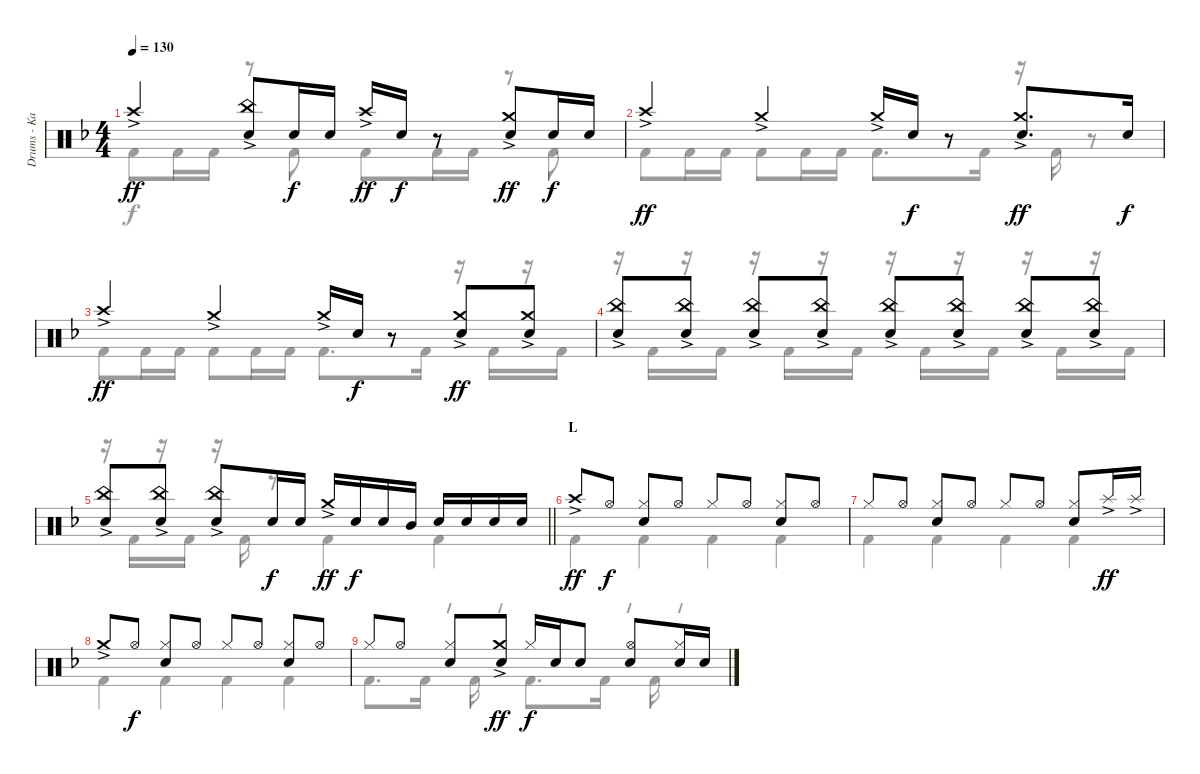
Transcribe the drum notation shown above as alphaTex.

\track ("Drums - Kai" "Drums - Ka") {instrument percussion}
\staff {score}
\articulation defaults
\voice
\ts (4 4)
\tempo 130
\clef neutral
\ks f "Crash high (hit)"{ac}.4{dy ff}
("China (hit)"{ac} "Snare (hit) 2").8 "Snare (hit) 2".16{dy f} "Snare (hit) 2".16 "Crash high (hit)"{ac}.16{dy ff} "Snare (hit) 2".16{dy f} r.8 ("Crash medium (hit)"{ac} "Snare (hit) 2").8{dy ff} "Snare (hit) 2".16{dy f} "Snare (hit) 2".16 |
"Crash high (hit)"{ac}.4{dy ff} "Crash medium (hit)"{ac}.4 "Crash medium (hit)"{ac}.16 "Snare (hit) 2".16{dy f} r.8 ("Crash medium (hit)"{ac} "Snare (hit) 2").8{d dy ff} "Snare (hit) 2".16{dy f} |
"Crash high (hit)"{ac}.4{dy ff} "Crash medium (hit)"{ac}.4 "Crash medium (hit)"{ac}.16 "Snare (hit) 2".16{dy f} r.8 ("Crash medium (hit)"{ac} "Snare (hit) 2").8{dy ff} ("Crash medium (hit)"{ac} "Snare (hit) 2").8 |
("China (hit)"{ac} "Snare (hit) 2").8 ("China (hit)"{ac} "Snare (hit) 2").8 ("China (hit)"{ac} "Snare (hit) 2").8 ("China (hit)"{ac} "Snare (hit) 2").8 ("China (hit)"{ac} "Snare (hit) 2").8 ("China (hit)"{ac} "Snare (hit) 2").8 ("China (hit)"{ac} "Snare (hit) 2").8 ("China (hit)"{ac} "Snare (hit) 2").8 |
\barLineRight lightlight
("China (hit)"{ac} "Snare (hit) 2").8 ("China (hit)"{ac} "Snare (hit) 2").8 ("China (hit)"{ac} "Snare (hit) 2").8 "Snare (hit) 2".16{dy f} "Snare (hit) 2".16 "Crash medium (hit)"{ac}.16{dy ff} "Snare (hit) 2".16{dy f} "Snare (hit) 2".16 "Mid Tom (hit)".16 "Snare (hit) 2".16 "Snare (hit) 2".16 "Snare (hit) 2".16 "Snare (hit) 2".16 |
\section ("" "L")
"Crash high (hit)"{ac}.8{dy ff} "Hi-Hat (open)".8{dy f} ("Hi-Hat (closed)" "Snare (hit) 2").8 "Hi-Hat (open)".8 "Hi-Hat (closed)".8 "Hi-Hat (open)".8 ("Hi-Hat (closed)" "Snare (hit) 2").8 "Hi-Hat (open)".8 |
"Hi-Hat (closed)".8 "Hi-Hat (open)".8 ("Hi-Hat (closed)" "Snare (hit) 2").8 "Hi-Hat (open)".8 "Hi-Hat (closed)".8 "Hi-Hat (open)".8 ("Hi-Hat (closed)" "Snare (hit) 2").8 "Splash (hit)"{ac}.16{dy ff} "Splash (hit)"{ac}.16 |
"Crash medium (hit)"{ac}.8 "Hi-Hat (open)".8{dy f} ("Hi-Hat (closed)" "Snare (hit) 2").8 "Hi-Hat (open)".8 "Hi-Hat (closed)".8 "Hi-Hat (open)".8 ("Hi-Hat (closed)" "Snare (hit) 2").8 "Hi-Hat (open)".8 |
"Hi-Hat (closed)".8 "Hi-Hat (open)".8 ("Hi-Hat (closed)" "Snare (hit) 2").8 ("Crash medium (hit)"{ac} "Snare (hit) 2").8{dy ff} "Hi-Hat (closed)".16{dy f} "Snare (hit) 2".16 "Snare (hit) 2".8 ("Hi-Hat (open)" "Snare (hit) 2").8 ("Hi-Hat (closed)" "Snare (hit) 2").16 "Snare (hit) 2".16
\voice
\clef neutral
\ottava regular
\simile none
\ks f "Kick (hit) 2".8{dy f} "Kick (hit) 2".16 "Kick (hit) 2".16
r.8 "Kick (hit) 2".8 "Kick (hit) 2".8 "Kick (hit) 2".16 "Kick (hit) 2".16 r.8 "Kick (hit) 2".8 |
"Kick (hit) 2".8 "Kick (hit) 2".16 "Kick (hit) 2".16 "Kick (hit) 2".8 "Kick (hit) 2".16 "Kick (hit) 2".16 "Kick (hit) 2".8{d} "Kick (hit) 2".16 r.16 "Kick (hit) 2".16 r.8 |
"Kick (hit) 2".8 "Kick (hit) 2".16 "Kick (hit) 2".16 "Kick (hit) 2".8 "Kick (hit) 2".16 "Kick (hit) 2".16 "Kick (hit) 2".8{d} "Kick (hit) 2".16 r.16 "Kick (hit) 2".16 r.16 "Kick (hit) 2".16 |
r.16 "Kick (hit) 2".16 r.16 "Kick (hit) 2".16 r.16 "Kick (hit) 2".16 r.16 "Kick (hit) 2".16 r.16 "Kick (hit) 2".16 r.16 "Kick (hit) 2".16 r.16 "Kick (hit) 2".16 r.16 "Kick (hit) 2".16 |
\barLineRight lightlight
r.16 "Kick (hit) 2".16 r.16 "Kick (hit) 2".16 r.16 "Kick (hit) 2".16 r.8 "Kick (hit) 2".4 "Kick (hit) 2".4 |
"Kick (hit) 2".4 "Kick (hit) 2".4 "Kick (hit) 2".4 "Kick (hit) 2".4 |
"Kick (hit) 2".4 "Kick (hit) 2".4 "Kick (hit) 2".4 "Kick (hit) 2".4 |
"Kick (hit) 2".4 "Kick (hit) 2".4 "Kick (hit) 2".4 "Kick (hit) 2".4 |
"Kick (hit) 2".8{d} "Kick (hit) 2".16 r.16 "Kick (hit) 2".16 r.8 "Kick (hit) 2".8{d} "Kick (hit) 2".16 r.16 "Kick (hit) 2".16 r.8
